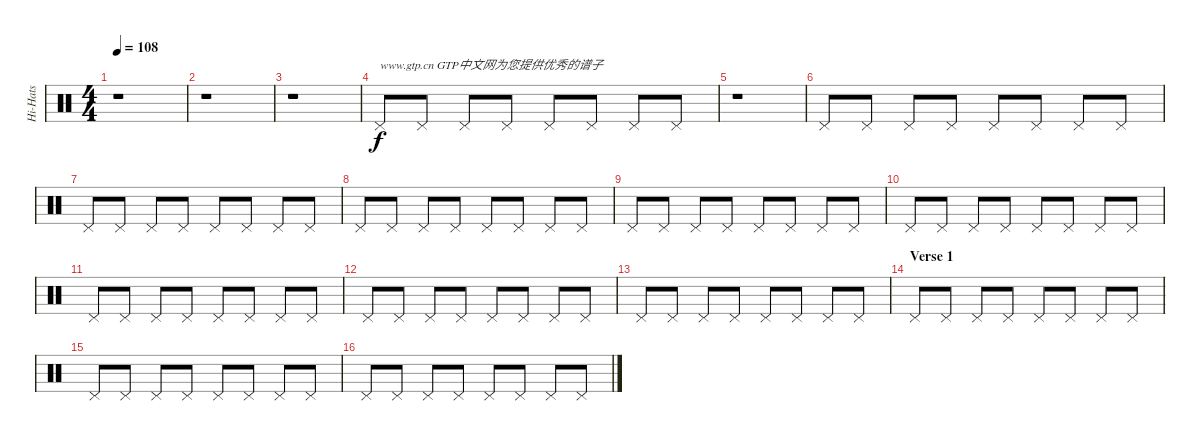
\track ("Hi-Hats" "Hi-Hats") {instrument percussion}
\staff {score}
\articulation defaults
\ts (4 4)
\tempo 108
\clef neutral
\ks c
r.1{dy f} |
r.1 |
r.1 |
"Pedal Hi-Hat (hit)".8{txt "www.gtp.cn GTP中文网为您提供优秀的谱子"} "Pedal Hi-Hat (hit)".8 "Pedal Hi-Hat (hit)".8 "Pedal Hi-Hat (hit)".8 "Pedal Hi-Hat (hit)".8 "Pedal Hi-Hat (hit)".8 "Pedal Hi-Hat (hit)".8 "Pedal Hi-Hat (hit)".8 |
r.1 |
"Pedal Hi-Hat (hit)".8 "Pedal Hi-Hat (hit)".8 "Pedal Hi-Hat (hit)".8 "Pedal Hi-Hat (hit)".8 "Pedal Hi-Hat (hit)".8 "Pedal Hi-Hat (hit)".8 "Pedal Hi-Hat (hit)".8 "Pedal Hi-Hat (hit)".8 |
"Pedal Hi-Hat (hit)".8 "Pedal Hi-Hat (hit)".8 "Pedal Hi-Hat (hit)".8 "Pedal Hi-Hat (hit)".8 "Pedal Hi-Hat (hit)".8 "Pedal Hi-Hat (hit)".8 "Pedal Hi-Hat (hit)".8 "Pedal Hi-Hat (hit)".8 |
"Pedal Hi-Hat (hit)".8 "Pedal Hi-Hat (hit)".8 "Pedal Hi-Hat (hit)".8 "Pedal Hi-Hat (hit)".8 "Pedal Hi-Hat (hit)".8 "Pedal Hi-Hat (hit)".8 "Pedal Hi-Hat (hit)".8 "Pedal Hi-Hat (hit)".8 |
"Pedal Hi-Hat (hit)".8 "Pedal Hi-Hat (hit)".8 "Pedal Hi-Hat (hit)".8 "Pedal Hi-Hat (hit)".8 "Pedal Hi-Hat (hit)".8 "Pedal Hi-Hat (hit)".8 "Pedal Hi-Hat (hit)".8 "Pedal Hi-Hat (hit)".8 |
"Pedal Hi-Hat (hit)".8 "Pedal Hi-Hat (hit)".8 "Pedal Hi-Hat (hit)".8 "Pedal Hi-Hat (hit)".8 "Pedal Hi-Hat (hit)".8 "Pedal Hi-Hat (hit)".8 "Pedal Hi-Hat (hit)".8 "Pedal Hi-Hat (hit)".8 |
"Pedal Hi-Hat (hit)".8 "Pedal Hi-Hat (hit)".8 "Pedal Hi-Hat (hit)".8 "Pedal Hi-Hat (hit)".8 "Pedal Hi-Hat (hit)".8 "Pedal Hi-Hat (hit)".8 "Pedal Hi-Hat (hit)".8 "Pedal Hi-Hat (hit)".8 |
"Pedal Hi-Hat (hit)".8 "Pedal Hi-Hat (hit)".8 "Pedal Hi-Hat (hit)".8 "Pedal Hi-Hat (hit)".8 "Pedal Hi-Hat (hit)".8 "Pedal Hi-Hat (hit)".8 "Pedal Hi-Hat (hit)".8 "Pedal Hi-Hat (hit)".8 |
"Pedal Hi-Hat (hit)".8 "Pedal Hi-Hat (hit)".8 "Pedal Hi-Hat (hit)".8 "Pedal Hi-Hat (hit)".8 "Pedal Hi-Hat (hit)".8 "Pedal Hi-Hat (hit)".8 "Pedal Hi-Hat (hit)".8 "Pedal Hi-Hat (hit)".8 |
\section ("" "Verse 1")
"Pedal Hi-Hat (hit)".8 "Pedal Hi-Hat (hit)".8 "Pedal Hi-Hat (hit)".8 "Pedal Hi-Hat (hit)".8 "Pedal Hi-Hat (hit)".8 "Pedal Hi-Hat (hit)".8 "Pedal Hi-Hat (hit)".8 "Pedal Hi-Hat (hit)".8 |
"Pedal Hi-Hat (hit)".8 "Pedal Hi-Hat (hit)".8 "Pedal Hi-Hat (hit)".8 "Pedal Hi-Hat (hit)".8 "Pedal Hi-Hat (hit)".8 "Pedal Hi-Hat (hit)".8 "Pedal Hi-Hat (hit)".8 "Pedal Hi-Hat (hit)".8 |
"Pedal Hi-Hat (hit)".8 "Pedal Hi-Hat (hit)".8 "Pedal Hi-Hat (hit)".8 "Pedal Hi-Hat (hit)".8 "Pedal Hi-Hat (hit)".8 "Pedal Hi-Hat (hit)".8 "Pedal Hi-Hat (hit)".8 "Pedal Hi-Hat (hit)".8
